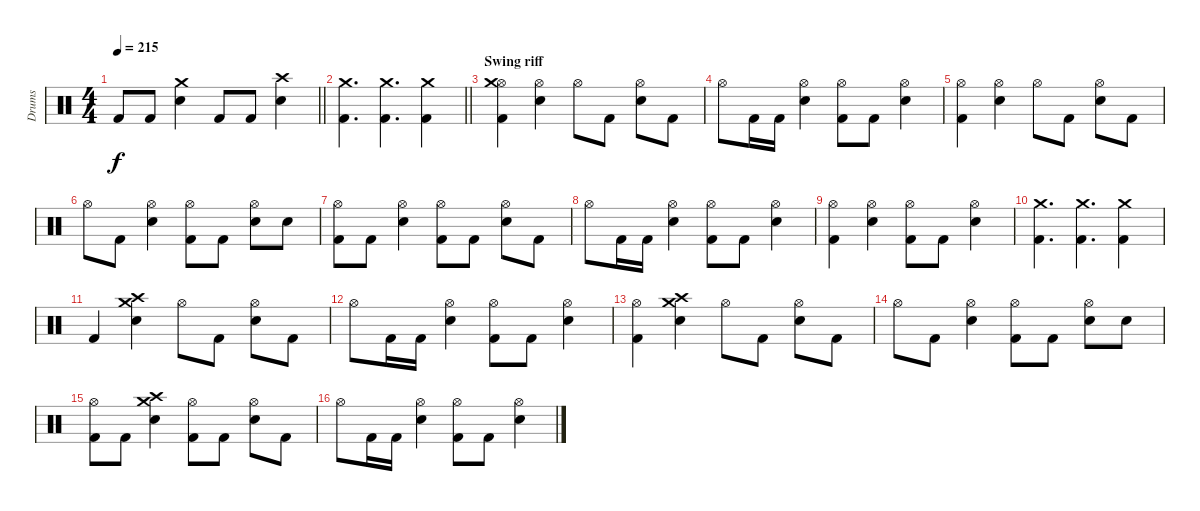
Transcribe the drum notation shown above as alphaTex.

\track ("Drums" "Drums") {instrument percussion}
\staff {score}
\articulation defaults
\ts (4 4)
\tempo 215
\clef neutral
\barLineRight lightlight
\ks c "Kick (hit) 2".8{dy f} "Kick (hit) 2".8
("Crash medium (hit)" "Snare (hit) 2").4 "Kick (hit) 2".8 "Kick (hit) 2".8 ("Crash high (hit)" "Snare (hit) 2").4 |
\barLineRight lightlight
("Crash medium (hit)" "Kick (hit) 2").4{d} ("Crash medium (hit)" "Kick (hit) 2").4{d} ("Crash medium (hit)" "Kick (hit) 2").4 |
\section ("" "Swing riff")
("Hi-Hat (open)" "Crash medium (hit)" "Kick (hit) 2").4 ("Hi-Hat (open)" "Snare (hit) 2").4 "Hi-Hat (open)".8 "Kick (hit) 2".8 ("Hi-Hat (open)" "Snare (hit) 2").8 "Kick (hit) 2".8 |
"Hi-Hat (open)".8 "Kick (hit) 2".16 "Kick (hit) 2".16 ("Hi-Hat (open)" "Snare (hit) 2").4 ("Hi-Hat (open)" "Kick (hit) 2").8 "Kick (hit) 2".8 ("Hi-Hat (open)" "Snare (hit) 2").4 |
("Hi-Hat (open)" "Kick (hit) 2").4 ("Hi-Hat (open)" "Snare (hit) 2").4 "Hi-Hat (open)".8 "Kick (hit) 2".8 ("Hi-Hat (open)" "Snare (hit) 2").8 "Kick (hit) 2".8 |
"Hi-Hat (open)".8 "Kick (hit) 2".8 ("Hi-Hat (open)" "Snare (hit) 2").4 ("Hi-Hat (open)" "Kick (hit) 2").8 "Kick (hit) 2".8 ("Hi-Hat (open)" "Snare (hit) 2").8 "Snare (hit) 2".8 |
("Hi-Hat (open)" "Kick (hit) 2").8 "Kick (hit) 2".8 ("Hi-Hat (open)" "Snare (hit) 2").4 ("Hi-Hat (open)" "Kick (hit) 2").8 "Kick (hit) 2".8 ("Hi-Hat (open)" "Snare (hit) 2").8 "Kick (hit) 2".8 |
"Hi-Hat (open)".8 "Kick (hit) 2".16 "Kick (hit) 2".16 ("Hi-Hat (open)" "Snare (hit) 2").4 ("Hi-Hat (open)" "Kick (hit) 2").8 "Kick (hit) 2".8 ("Hi-Hat (open)" "Snare (hit) 2").4 |
("Hi-Hat (open)" "Kick (hit) 2").4 ("Hi-Hat (open)" "Snare (hit) 2").4 ("Hi-Hat (open)" "Kick (hit) 2").8 "Kick (hit) 2".8 ("Hi-Hat (open)" "Snare (hit) 2").4 |
("Crash medium (hit)" "Kick (hit) 2").4{d} ("Crash medium (hit)" "Kick (hit) 2").4{d} ("Crash medium (hit)" "Kick (hit) 2").4 |
"Kick (hit) 2".4 ("Crash medium (hit)" "Crash high (hit)" "Snare (hit) 2").4 "Hi-Hat (open)".8 "Kick (hit) 2".8 ("Hi-Hat (open)" "Snare (hit) 2").8 "Kick (hit) 2".8 |
"Hi-Hat (open)".8 "Kick (hit) 2".16 "Kick (hit) 2".16 ("Hi-Hat (open)" "Snare (hit) 2").4 ("Hi-Hat (open)" "Kick (hit) 2").8 "Kick (hit) 2".8 ("Hi-Hat (open)" "Snare (hit) 2").4 |
("Hi-Hat (open)" "Kick (hit) 2").4 ("Crash high (hit)" "Crash medium (hit)" "Snare (hit) 2").4 "Hi-Hat (open)".8 "Kick (hit) 2".8 ("Hi-Hat (open)" "Snare (hit) 2").8 "Kick (hit) 2".8 |
"Hi-Hat (open)".8 "Kick (hit) 2".8 ("Hi-Hat (open)" "Snare (hit) 2").4 ("Hi-Hat (open)" "Kick (hit) 2").8 "Kick (hit) 2".8 ("Hi-Hat (open)" "Snare (hit) 2").8 "Snare (hit) 2".8 |
("Hi-Hat (open)" "Kick (hit) 2").8 "Kick (hit) 2".8 ("Crash medium (hit)" "Crash high (hit)" "Snare (hit) 2").4 ("Hi-Hat (open)" "Kick (hit) 2").8 "Kick (hit) 2".8 ("Hi-Hat (open)" "Snare (hit) 2").8 "Kick (hit) 2".8 |
"Hi-Hat (open)".8 "Kick (hit) 2".16 "Kick (hit) 2".16 ("Hi-Hat (open)" "Snare (hit) 2").4 ("Hi-Hat (open)" "Kick (hit) 2").8 "Kick (hit) 2".8 ("Hi-Hat (open)" "Snare (hit) 2").4
